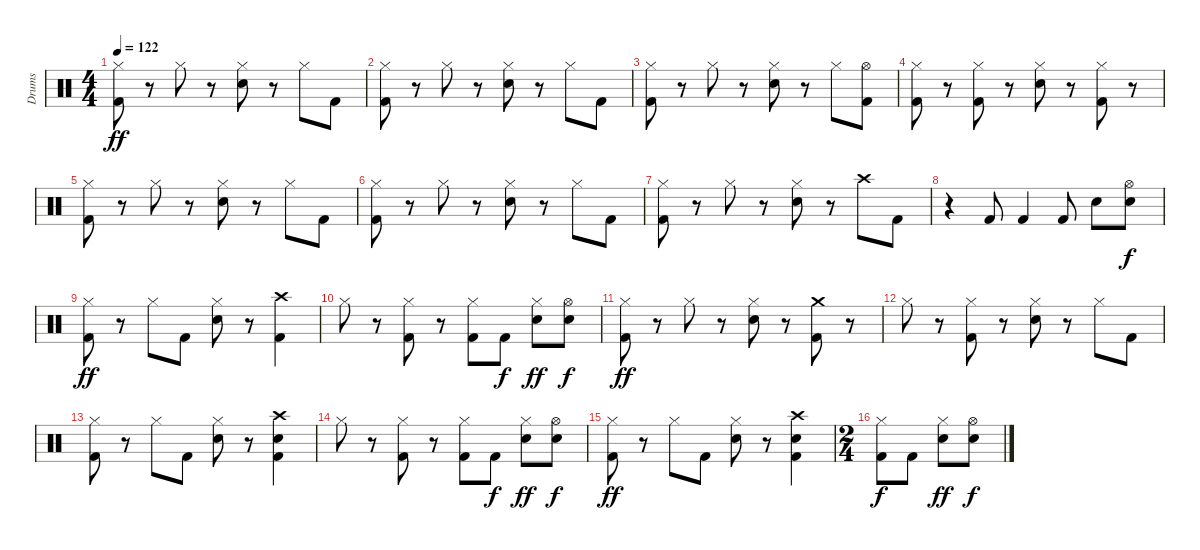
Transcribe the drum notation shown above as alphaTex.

\track ("Drums" "Drums") {instrument percussion}
\staff {score}
\articulation defaults
\ts (4 4)
\tempo 122
\clef neutral
\ks c
("Hi-Hat (closed)" "Kick (hit) 2").8{dy ff} r.8 "Hi-Hat (closed)".8 r.8 ("Hi-Hat (closed)" "Snare (hit) 2").8 r.8 "Hi-Hat (closed)".8 "Kick (hit) 2".8 |
("Hi-Hat (closed)" "Kick (hit) 2").8 r.8 "Hi-Hat (closed)".8 r.8 ("Hi-Hat (closed)" "Snare (hit) 2").8 r.8 "Hi-Hat (closed)".8 "Kick (hit) 2".8 |
("Hi-Hat (closed)" "Kick (hit) 2").8 r.8 "Hi-Hat (closed)".8 r.8 ("Hi-Hat (closed)" "Snare (hit) 2").8 r.8 "Hi-Hat (closed)".8 ("Hi-Hat (open)" "Kick (hit) 2").8 |
("Hi-Hat (closed)" "Kick (hit) 2").8 r.8 ("Hi-Hat (closed)" "Kick (hit) 2").8 r.8 ("Hi-Hat (closed)" "Snare (hit) 2").8 r.8 ("Hi-Hat (closed)" "Kick (hit) 2").8 r.8 |
("Hi-Hat (closed)" "Kick (hit) 2").8 r.8 "Hi-Hat (closed)".8 r.8 ("Hi-Hat (closed)" "Snare (hit) 2").8 r.8 "Hi-Hat (closed)".8 "Kick (hit) 2".8 |
("Hi-Hat (closed)" "Kick (hit) 2").8 r.8 "Hi-Hat (closed)".8 r.8 ("Hi-Hat (closed)" "Snare (hit) 2").8 r.8 "Hi-Hat (closed)".8 "Kick (hit) 2".8 |
("Hi-Hat (closed)" "Kick (hit) 2").8 r.8 "Hi-Hat (closed)".8 r.8 ("Hi-Hat (closed)" "Snare (hit) 2").8 r.8 "Crash high (hit)".8 "Kick (hit) 2".8 |
r.4 "Kick (hit) 2".8 "Kick (hit) 2".4 "Kick (hit) 2".8 "Snare (hit) 2".8 ("Hi-Hat (open)" "Snare (hit) 2").8{dy f} |
("Hi-Hat (closed)" "Kick (hit) 2").8{dy ff} r.8 "Hi-Hat (closed)".8 "Kick (hit) 2".8 ("Hi-Hat (closed)" "Snare (hit) 2").8 r.8 ("Crash high (hit)" "Kick (hit) 2").4 |
"Hi-Hat (closed)".8 r.8 ("Hi-Hat (closed)" "Kick (hit) 2").8 r.8 ("Hi-Hat (closed)" "Kick (hit) 2").8 "Kick (hit) 2".8{dy f} ("Hi-Hat (closed)" "Snare (hit) 2").8{dy ff} ("Hi-Hat (open)" "Snare (hit) 2").8{dy f} |
("Hi-Hat (closed)" "Kick (hit) 2").8{dy ff} r.8 "Hi-Hat (closed)".8 r.8 ("Hi-Hat (closed)" "Snare (hit) 2").8 r.8 ("Crash medium (hit)" "Kick (hit) 2").8 r.8 |
"Hi-Hat (closed)".8 r.8 ("Hi-Hat (closed)" "Kick (hit) 2").8 r.8 ("Hi-Hat (closed)" "Snare (hit) 2").8 r.8 "Hi-Hat (closed)".8 "Kick (hit) 2".8 |
("Hi-Hat (closed)" "Kick (hit) 2").8 r.8 "Hi-Hat (closed)".8 "Kick (hit) 2".8 ("Hi-Hat (closed)" "Snare (hit) 2").8 r.8 ("Crash high (hit)" "Snare (hit) 2" "Kick (hit) 2").4 |
"Hi-Hat (closed)".8 r.8 ("Hi-Hat (closed)" "Kick (hit) 2").8 r.8 ("Hi-Hat (closed)" "Kick (hit) 2").8 "Kick (hit) 2".8{dy f} ("Hi-Hat (closed)" "Snare (hit) 2").8{dy ff} ("Hi-Hat (open)" "Snare (hit) 2").8{dy f} |
("Hi-Hat (closed)" "Kick (hit) 2").8{dy ff} r.8 "Hi-Hat (closed)".8 "Kick (hit) 2".8 ("Hi-Hat (closed)" "Snare (hit) 2").8 r.8 ("Crash high (hit)" "Snare (hit) 2" "Kick (hit) 2").4 |
\ts (2 4)
("Hi-Hat (closed)" "Kick (hit) 2").8{dy f} "Kick (hit) 2".8 ("Hi-Hat (closed)" "Snare (hit) 2").8{dy ff} ("Hi-Hat (open)" "Snare (hit) 2").8{dy f}
